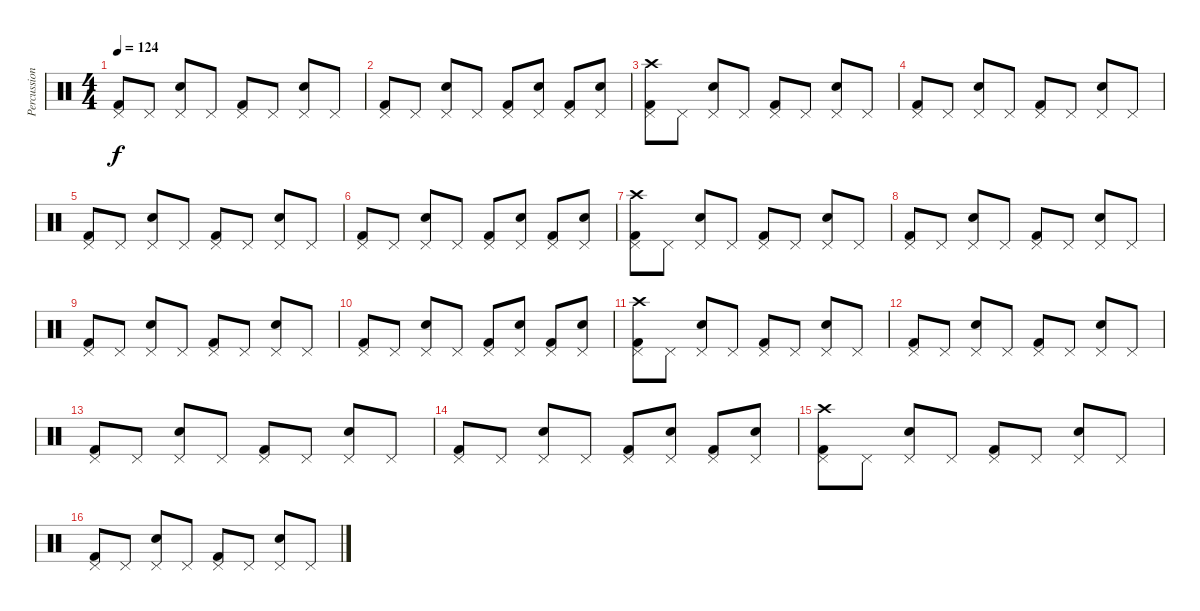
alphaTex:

\track ("Percussion" "Percussion") {instrument percussion}
\staff {score}
\articulation defaults
\ts (4 4)
\tempo 124
\clef neutral
\ks c
("Pedal Hi-Hat (hit)" "Kick (hit) 2").8{dy f} "Pedal Hi-Hat (hit)".8 ("Pedal Hi-Hat (hit)" "Electric Snare (hit)").8 "Pedal Hi-Hat (hit)".8 ("Pedal Hi-Hat (hit)" "Kick (hit) 2").8 "Pedal Hi-Hat (hit)".8 ("Pedal Hi-Hat (hit)" "Electric Snare (hit)").8 "Pedal Hi-Hat (hit)".8 |
("Pedal Hi-Hat (hit)" "Kick (hit) 2").8 "Pedal Hi-Hat (hit)".8 ("Pedal Hi-Hat (hit)" "Electric Snare (hit)").8 "Pedal Hi-Hat (hit)".8 ("Pedal Hi-Hat (hit)" "Kick (hit) 2").8 ("Pedal Hi-Hat (hit)" "Electric Snare (hit)").8 ("Pedal Hi-Hat (hit)" "Kick (hit) 2").8 ("Pedal Hi-Hat (hit)" "Electric Snare (hit)").8 |
("Crash high (hit)" "Pedal Hi-Hat (hit)" "Kick (hit) 2").8 "Pedal Hi-Hat (hit)".8 ("Pedal Hi-Hat (hit)" "Electric Snare (hit)").8 "Pedal Hi-Hat (hit)".8 ("Pedal Hi-Hat (hit)" "Kick (hit) 2").8 "Pedal Hi-Hat (hit)".8 ("Pedal Hi-Hat (hit)" "Electric Snare (hit)").8 "Pedal Hi-Hat (hit)".8 |
("Pedal Hi-Hat (hit)" "Kick (hit) 2").8 "Pedal Hi-Hat (hit)".8 ("Pedal Hi-Hat (hit)" "Electric Snare (hit)").8 "Pedal Hi-Hat (hit)".8 ("Pedal Hi-Hat (hit)" "Kick (hit) 2").8 "Pedal Hi-Hat (hit)".8 ("Pedal Hi-Hat (hit)" "Electric Snare (hit)").8 "Pedal Hi-Hat (hit)".8 |
("Pedal Hi-Hat (hit)" "Kick (hit) 2").8 "Pedal Hi-Hat (hit)".8 ("Pedal Hi-Hat (hit)" "Electric Snare (hit)").8 "Pedal Hi-Hat (hit)".8 ("Pedal Hi-Hat (hit)" "Kick (hit) 2").8 "Pedal Hi-Hat (hit)".8 ("Pedal Hi-Hat (hit)" "Electric Snare (hit)").8 "Pedal Hi-Hat (hit)".8 |
("Pedal Hi-Hat (hit)" "Kick (hit) 2").8 "Pedal Hi-Hat (hit)".8 ("Pedal Hi-Hat (hit)" "Electric Snare (hit)").8 "Pedal Hi-Hat (hit)".8 ("Pedal Hi-Hat (hit)" "Kick (hit) 2").8 ("Pedal Hi-Hat (hit)" "Electric Snare (hit)").8 ("Pedal Hi-Hat (hit)" "Kick (hit) 2").8 ("Pedal Hi-Hat (hit)" "Electric Snare (hit)").8 |
("Crash high (hit)" "Pedal Hi-Hat (hit)" "Kick (hit) 2").8 "Pedal Hi-Hat (hit)".8 ("Pedal Hi-Hat (hit)" "Electric Snare (hit)").8 "Pedal Hi-Hat (hit)".8 ("Pedal Hi-Hat (hit)" "Kick (hit) 2").8 "Pedal Hi-Hat (hit)".8 ("Pedal Hi-Hat (hit)" "Electric Snare (hit)").8 "Pedal Hi-Hat (hit)".8 |
("Pedal Hi-Hat (hit)" "Kick (hit) 2").8 "Pedal Hi-Hat (hit)".8 ("Pedal Hi-Hat (hit)" "Electric Snare (hit)").8 "Pedal Hi-Hat (hit)".8 ("Pedal Hi-Hat (hit)" "Kick (hit) 2").8 "Pedal Hi-Hat (hit)".8 ("Pedal Hi-Hat (hit)" "Electric Snare (hit)").8 "Pedal Hi-Hat (hit)".8 |
("Pedal Hi-Hat (hit)" "Kick (hit) 2").8 "Pedal Hi-Hat (hit)".8 ("Pedal Hi-Hat (hit)" "Electric Snare (hit)").8 "Pedal Hi-Hat (hit)".8 ("Pedal Hi-Hat (hit)" "Kick (hit) 2").8 "Pedal Hi-Hat (hit)".8 ("Pedal Hi-Hat (hit)" "Electric Snare (hit)").8 "Pedal Hi-Hat (hit)".8 |
("Pedal Hi-Hat (hit)" "Kick (hit) 2").8 "Pedal Hi-Hat (hit)".8 ("Pedal Hi-Hat (hit)" "Electric Snare (hit)").8 "Pedal Hi-Hat (hit)".8 ("Pedal Hi-Hat (hit)" "Kick (hit) 2").8 ("Pedal Hi-Hat (hit)" "Electric Snare (hit)").8 ("Pedal Hi-Hat (hit)" "Kick (hit) 2").8 ("Pedal Hi-Hat (hit)" "Electric Snare (hit)").8 |
("Crash high (hit)" "Pedal Hi-Hat (hit)" "Kick (hit) 2").8 "Pedal Hi-Hat (hit)".8 ("Pedal Hi-Hat (hit)" "Electric Snare (hit)").8 "Pedal Hi-Hat (hit)".8 ("Pedal Hi-Hat (hit)" "Kick (hit) 2").8 "Pedal Hi-Hat (hit)".8 ("Pedal Hi-Hat (hit)" "Electric Snare (hit)").8 "Pedal Hi-Hat (hit)".8 |
("Pedal Hi-Hat (hit)" "Kick (hit) 2").8 "Pedal Hi-Hat (hit)".8 ("Pedal Hi-Hat (hit)" "Electric Snare (hit)").8 "Pedal Hi-Hat (hit)".8 ("Pedal Hi-Hat (hit)" "Kick (hit) 2").8 "Pedal Hi-Hat (hit)".8 ("Pedal Hi-Hat (hit)" "Electric Snare (hit)").8 "Pedal Hi-Hat (hit)".8 |
("Pedal Hi-Hat (hit)" "Kick (hit) 2").8 "Pedal Hi-Hat (hit)".8 ("Pedal Hi-Hat (hit)" "Electric Snare (hit)").8 "Pedal Hi-Hat (hit)".8 ("Pedal Hi-Hat (hit)" "Kick (hit) 2").8 "Pedal Hi-Hat (hit)".8 ("Pedal Hi-Hat (hit)" "Electric Snare (hit)").8 "Pedal Hi-Hat (hit)".8 |
("Pedal Hi-Hat (hit)" "Kick (hit) 2").8 "Pedal Hi-Hat (hit)".8 ("Pedal Hi-Hat (hit)" "Electric Snare (hit)").8 "Pedal Hi-Hat (hit)".8 ("Pedal Hi-Hat (hit)" "Kick (hit) 2").8 ("Pedal Hi-Hat (hit)" "Electric Snare (hit)").8 ("Pedal Hi-Hat (hit)" "Kick (hit) 2").8 ("Pedal Hi-Hat (hit)" "Electric Snare (hit)").8 |
("Crash high (hit)" "Pedal Hi-Hat (hit)" "Kick (hit) 2").8 "Pedal Hi-Hat (hit)".8 ("Pedal Hi-Hat (hit)" "Electric Snare (hit)").8 "Pedal Hi-Hat (hit)".8 ("Pedal Hi-Hat (hit)" "Kick (hit) 2").8 "Pedal Hi-Hat (hit)".8 ("Pedal Hi-Hat (hit)" "Electric Snare (hit)").8 "Pedal Hi-Hat (hit)".8 |
("Pedal Hi-Hat (hit)" "Kick (hit) 2").8 "Pedal Hi-Hat (hit)".8 ("Pedal Hi-Hat (hit)" "Electric Snare (hit)").8 "Pedal Hi-Hat (hit)".8 ("Pedal Hi-Hat (hit)" "Kick (hit) 2").8 "Pedal Hi-Hat (hit)".8 ("Pedal Hi-Hat (hit)" "Electric Snare (hit)").8 "Pedal Hi-Hat (hit)".8
